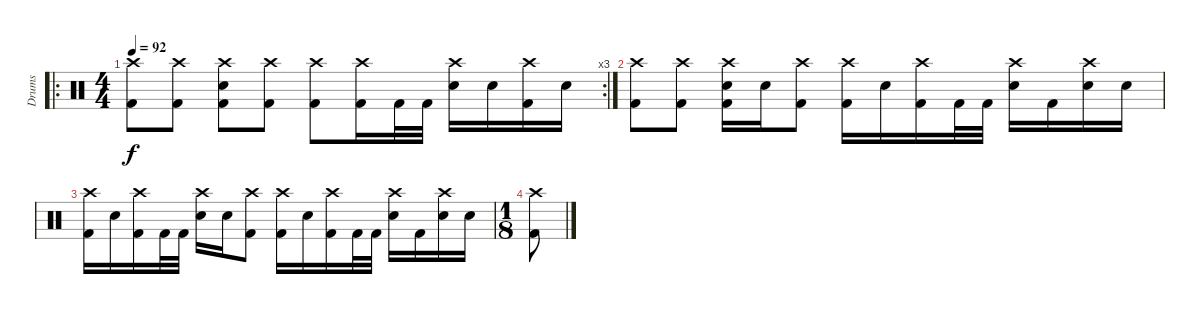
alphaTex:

\track ("Drums" "Drums") {instrument percussion}
\staff {score}
\articulation defaults
\ro
\rc 3
\ts (4 4)
\tempo 92
\clef neutral
\ks c
("Crash high (hit)" "Kick (hit) 2").8{dy f} ("Crash high (hit)" "Kick (hit) 2").8 ("Crash high (hit)" "Electric Snare (hit)" "Kick (hit) 2").8 ("Crash high (hit)" "Kick (hit) 2").8 ("Crash high (hit)" "Kick (hit) 2").8 ("Crash high (hit)" "Kick (hit) 2").16 "Kick (hit) 2".32 "Kick (hit) 2".32 ("Crash high (hit)" "Electric Snare (hit)").16 "Electric Snare (hit)".16 ("Crash high (hit)" "Kick (hit) 2").16 "Electric Snare (hit)".16 |
("Crash high (hit)" "Kick (hit) 2").8 ("Crash high (hit)" "Kick (hit) 2").8 ("Crash high (hit)" "Electric Snare (hit)" "Kick (hit) 2").16 "Electric Snare (hit)".16 ("Crash high (hit)" "Kick (hit) 2").8 ("Crash high (hit)" "Kick (hit) 2").16 "Electric Snare (hit)".16 ("Crash high (hit)" "Kick (hit) 2").16 "Kick (hit) 2".32 "Kick (hit) 2".32 ("Crash high (hit)" "Electric Snare (hit)").16 "Kick (hit) 2".16 ("Crash high (hit)" "Electric Snare (hit)").16 "Electric Snare (hit)".16 |
("Crash high (hit)" "Kick (hit) 2").16 "Electric Snare (hit)".16 ("Crash high (hit)" "Kick (hit) 2").16 "Kick (hit) 2".32 "Kick (hit) 2".32 ("Crash high (hit)" "Electric Snare (hit)").16 "Electric Snare (hit)".16 ("Crash high (hit)" "Kick (hit) 2").8 ("Crash high (hit)" "Kick (hit) 2").16 "Electric Snare (hit)".16 ("Crash high (hit)" "Kick (hit) 2").16 "Kick (hit) 2".32 "Kick (hit) 2".32 ("Crash high (hit)" "Electric Snare (hit)").16 "Kick (hit) 2".16 ("Crash high (hit)" "Electric Snare (hit)").16 "Electric Snare (hit)".16 |
\ts (1 8)
("Crash high (hit)" "Kick (hit) 2").8
